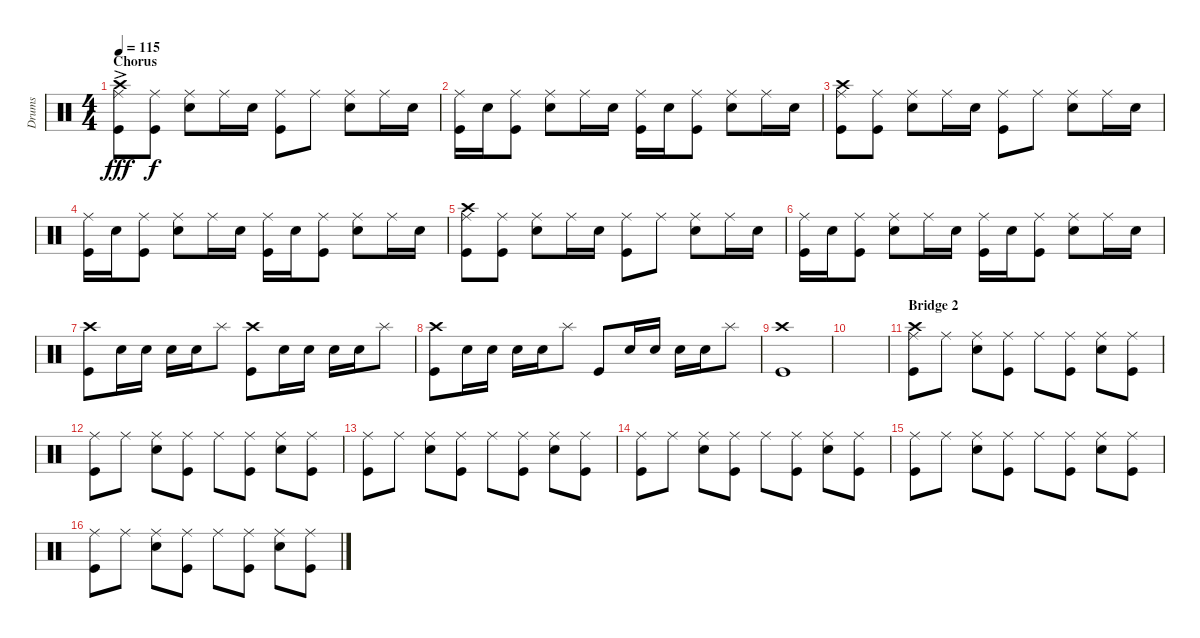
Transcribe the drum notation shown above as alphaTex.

\track ("Drums" "Drums") {instrument percussion}
\staff {score}
\articulation defaults
\ts (4 4)
\section ("" "Chorus")
\tempo 115
\clef neutral
\ks c
("Ride (middle)" "Crash high (hit)"{ac} "Kick (hit)").8{dy fff} ("Ride (middle)" "Kick (hit)").8{dy f} ("Ride (middle)" "Snare (hit) 2").8 "Ride (middle)".16 "Snare (hit) 2".16 ("Ride (middle)" "Kick (hit)").8 "Ride (middle)".8 ("Ride (middle)" "Snare (hit) 2").8 "Ride (middle)".16 "Snare (hit) 2".16 |
("Ride (middle)" "Kick (hit)").16 "Snare (hit) 2".16 ("Ride (middle)" "Kick (hit)").8 ("Ride (middle)" "Snare (hit) 2").8 "Ride (middle)".16 "Snare (hit) 2".16 ("Ride (middle)" "Kick (hit)").16 "Snare (hit) 2".16 ("Ride (middle)" "Kick (hit)").8 ("Ride (middle)" "Snare (hit) 2").8 "Ride (middle)".16 "Snare (hit) 2".16 |
("Ride (middle)" "Crash high (hit)" "Kick (hit)").8 ("Ride (middle)" "Kick (hit)").8 ("Ride (middle)" "Snare (hit) 2").8 "Ride (middle)".16 "Snare (hit) 2".16 ("Ride (middle)" "Kick (hit)").8 "Ride (middle)".8 ("Ride (middle)" "Snare (hit) 2").8 "Ride (middle)".16 "Snare (hit) 2".16 |
("Ride (middle)" "Kick (hit)").16 "Snare (hit) 2".16 ("Ride (middle)" "Kick (hit)").8 ("Ride (middle)" "Snare (hit) 2").8 "Ride (middle)".16 "Snare (hit) 2".16 ("Ride (middle)" "Kick (hit)").16 "Snare (hit) 2".16 ("Ride (middle)" "Kick (hit)").8 ("Ride (middle)" "Snare (hit) 2").8 "Ride (middle)".16 "Snare (hit) 2".16 |
("Ride (middle)" "Crash high (hit)" "Kick (hit)").8 ("Ride (middle)" "Kick (hit)").8 ("Ride (middle)" "Snare (hit) 2").8 "Ride (middle)".16 "Snare (hit) 2".16 ("Ride (middle)" "Kick (hit)").8 "Ride (middle)".8 ("Ride (middle)" "Snare (hit) 2").8 "Ride (middle)".16 "Snare (hit) 2".16 |
("Ride (middle)" "Kick (hit)").16 "Snare (hit) 2".16 ("Ride (middle)" "Kick (hit)").8 ("Ride (middle)" "Snare (hit) 2").8 "Ride (middle)".16 "Snare (hit) 2".16 ("Ride (middle)" "Kick (hit)").16 "Snare (hit) 2".16 ("Ride (middle)" "Kick (hit)").8 ("Ride (middle)" "Snare (hit) 2").8 "Ride (middle)".16 "Snare (hit) 2".16 |
("Crash high (hit)" "Kick (hit)").8 "Snare (hit) 2".16 "Snare (hit) 2".16 "Snare (hit) 2".16 "Snare (hit) 2".16 "Splash (hit)".8 ("Crash high (hit)" "Kick (hit)").8 "Snare (hit) 2".16 "Snare (hit) 2".16 "Snare (hit) 2".16 "Snare (hit) 2".16 "Splash (hit)".8 |
("Crash high (hit)" "Kick (hit)").8 "Snare (hit) 2".16 "Snare (hit) 2".16 "Snare (hit) 2".16 "Snare (hit) 2".16 "Splash (hit)".8 "Kick (hit)".8 "Snare (hit) 2".16 "Snare (hit) 2".16 "Snare (hit) 2".16 "Snare (hit) 2".16 "Splash (hit)".8 |
("Crash high (hit)" "Kick (hit)").1 |
|
\section ("" "Bridge 2")
("Ride (middle)" "Crash high (hit)" "Kick (hit)").8 "Ride (middle)".8 ("Ride (middle)" "Snare (hit) 2").8 ("Ride (middle)" "Kick (hit)").8 "Ride (middle)".8 ("Ride (middle)" "Kick (hit)").8 ("Ride (middle)" "Snare (hit) 2").8 ("Ride (middle)" "Kick (hit)").8 |
("Ride (middle)" "Kick (hit)").8 "Ride (middle)".8 ("Ride (middle)" "Snare (hit) 2").8 ("Ride (middle)" "Kick (hit)").8 "Ride (middle)".8 ("Ride (middle)" "Kick (hit)").8 ("Ride (middle)" "Snare (hit) 2").8 ("Ride (middle)" "Kick (hit)").8 |
("Ride (middle)" "Kick (hit)").8 "Ride (middle)".8 ("Ride (middle)" "Snare (hit) 2").8 ("Ride (middle)" "Kick (hit)").8 "Ride (middle)".8 ("Ride (middle)" "Kick (hit)").8 ("Ride (middle)" "Snare (hit) 2").8 ("Ride (middle)" "Kick (hit)").8 |
("Ride (middle)" "Kick (hit)").8 "Ride (middle)".8 ("Ride (middle)" "Snare (hit) 2").8 ("Ride (middle)" "Kick (hit)").8 "Ride (middle)".8 ("Ride (middle)" "Kick (hit)").8 ("Ride (middle)" "Snare (hit) 2").8 ("Ride (middle)" "Kick (hit)").8 |
("Ride (middle)" "Kick (hit)").8 "Ride (middle)".8 ("Ride (middle)" "Snare (hit) 2").8 ("Ride (middle)" "Kick (hit)").8 "Ride (middle)".8 ("Ride (middle)" "Kick (hit)").8 ("Ride (middle)" "Snare (hit) 2").8 ("Ride (middle)" "Kick (hit)").8 |
("Ride (middle)" "Kick (hit)").8 "Ride (middle)".8 ("Ride (middle)" "Snare (hit) 2").8 ("Ride (middle)" "Kick (hit)").8 "Ride (middle)".8 ("Ride (middle)" "Kick (hit)").8 ("Ride (middle)" "Snare (hit) 2").8 ("Ride (middle)" "Kick (hit)").8
